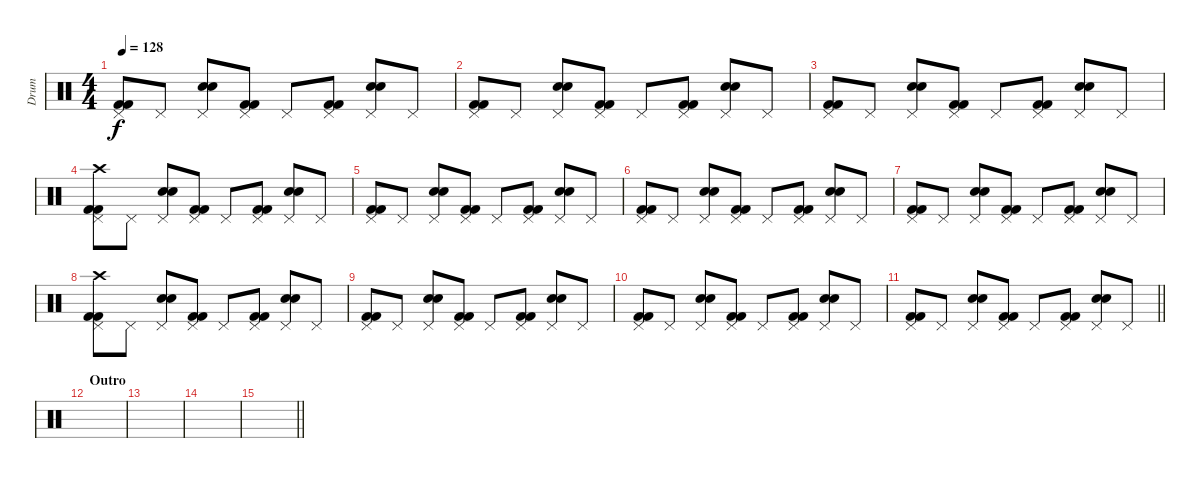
\track ("Drum" "Drum") {instrument percussion}
\staff {score}
\articulation defaults
\ts (4 4)
\tempo 128
\clef neutral
\ks c
("Kick (hit) 2" "Kick (hit) 2" "Pedal Hi-Hat (hit)").8{dy f} "Pedal Hi-Hat (hit)".8 ("Snare (hit) 2" "Snare (hit) 2" "Pedal Hi-Hat (hit)").8 ("Kick (hit) 2" "Kick (hit) 2" "Pedal Hi-Hat (hit)").8 "Pedal Hi-Hat (hit)".8 ("Kick (hit) 2" "Kick (hit) 2" "Pedal Hi-Hat (hit)").8 ("Snare (hit) 2" "Snare (hit) 2" "Pedal Hi-Hat (hit)").8 "Pedal Hi-Hat (hit)".8 |
("Kick (hit) 2" "Kick (hit) 2" "Pedal Hi-Hat (hit)").8 "Pedal Hi-Hat (hit)".8 ("Snare (hit) 2" "Snare (hit) 2" "Pedal Hi-Hat (hit)").8 ("Kick (hit) 2" "Kick (hit) 2" "Pedal Hi-Hat (hit)").8 "Pedal Hi-Hat (hit)".8 ("Kick (hit) 2" "Kick (hit) 2" "Pedal Hi-Hat (hit)").8 ("Snare (hit) 2" "Snare (hit) 2" "Pedal Hi-Hat (hit)").8 "Pedal Hi-Hat (hit)".8 |
("Kick (hit) 2" "Kick (hit) 2" "Pedal Hi-Hat (hit)").8 "Pedal Hi-Hat (hit)".8 ("Snare (hit) 2" "Snare (hit) 2" "Pedal Hi-Hat (hit)").8 ("Kick (hit) 2" "Kick (hit) 2" "Pedal Hi-Hat (hit)").8 "Pedal Hi-Hat (hit)".8 ("Kick (hit) 2" "Kick (hit) 2" "Pedal Hi-Hat (hit)").8 ("Snare (hit) 2" "Snare (hit) 2" "Pedal Hi-Hat (hit)").8 "Pedal Hi-Hat (hit)".8 |
("Kick (hit) 2" "Kick (hit) 2" "Pedal Hi-Hat (hit)" "Crash high (hit)").8 "Pedal Hi-Hat (hit)".8 ("Snare (hit) 2" "Snare (hit) 2" "Pedal Hi-Hat (hit)").8 ("Kick (hit) 2" "Kick (hit) 2" "Pedal Hi-Hat (hit)").8 "Pedal Hi-Hat (hit)".8 ("Kick (hit) 2" "Kick (hit) 2" "Pedal Hi-Hat (hit)").8 ("Snare (hit) 2" "Snare (hit) 2" "Pedal Hi-Hat (hit)").8 "Pedal Hi-Hat (hit)".8 |
("Kick (hit) 2" "Kick (hit) 2" "Pedal Hi-Hat (hit)").8 "Pedal Hi-Hat (hit)".8 ("Snare (hit) 2" "Snare (hit) 2" "Pedal Hi-Hat (hit)").8 ("Kick (hit) 2" "Kick (hit) 2" "Pedal Hi-Hat (hit)").8 "Pedal Hi-Hat (hit)".8 ("Kick (hit) 2" "Kick (hit) 2" "Pedal Hi-Hat (hit)").8 ("Snare (hit) 2" "Snare (hit) 2" "Pedal Hi-Hat (hit)").8 "Pedal Hi-Hat (hit)".8 |
("Kick (hit) 2" "Kick (hit) 2" "Pedal Hi-Hat (hit)").8 "Pedal Hi-Hat (hit)".8 ("Snare (hit) 2" "Snare (hit) 2" "Pedal Hi-Hat (hit)").8 ("Kick (hit) 2" "Kick (hit) 2" "Pedal Hi-Hat (hit)").8 "Pedal Hi-Hat (hit)".8 ("Kick (hit) 2" "Kick (hit) 2" "Pedal Hi-Hat (hit)").8 ("Snare (hit) 2" "Snare (hit) 2" "Pedal Hi-Hat (hit)").8 "Pedal Hi-Hat (hit)".8 |
("Kick (hit) 2" "Kick (hit) 2" "Pedal Hi-Hat (hit)").8 "Pedal Hi-Hat (hit)".8 ("Snare (hit) 2" "Snare (hit) 2" "Pedal Hi-Hat (hit)").8 ("Kick (hit) 2" "Kick (hit) 2" "Pedal Hi-Hat (hit)").8 "Pedal Hi-Hat (hit)".8 ("Kick (hit) 2" "Kick (hit) 2" "Pedal Hi-Hat (hit)").8 ("Snare (hit) 2" "Snare (hit) 2" "Pedal Hi-Hat (hit)").8 "Pedal Hi-Hat (hit)".8 |
("Kick (hit) 2" "Kick (hit) 2" "Pedal Hi-Hat (hit)" "Crash high (hit)").8 "Pedal Hi-Hat (hit)".8 ("Snare (hit) 2" "Snare (hit) 2" "Pedal Hi-Hat (hit)").8 ("Kick (hit) 2" "Kick (hit) 2" "Pedal Hi-Hat (hit)").8 "Pedal Hi-Hat (hit)".8 ("Kick (hit) 2" "Kick (hit) 2" "Pedal Hi-Hat (hit)").8 ("Snare (hit) 2" "Snare (hit) 2" "Pedal Hi-Hat (hit)").8 "Pedal Hi-Hat (hit)".8 |
("Kick (hit) 2" "Kick (hit) 2" "Pedal Hi-Hat (hit)").8 "Pedal Hi-Hat (hit)".8 ("Snare (hit) 2" "Snare (hit) 2" "Pedal Hi-Hat (hit)").8 ("Kick (hit) 2" "Kick (hit) 2" "Pedal Hi-Hat (hit)").8 "Pedal Hi-Hat (hit)".8 ("Kick (hit) 2" "Kick (hit) 2" "Pedal Hi-Hat (hit)").8 ("Snare (hit) 2" "Snare (hit) 2" "Pedal Hi-Hat (hit)").8 "Pedal Hi-Hat (hit)".8 |
("Kick (hit) 2" "Kick (hit) 2" "Pedal Hi-Hat (hit)").8 "Pedal Hi-Hat (hit)".8 ("Snare (hit) 2" "Snare (hit) 2" "Pedal Hi-Hat (hit)").8 ("Kick (hit) 2" "Kick (hit) 2" "Pedal Hi-Hat (hit)").8 "Pedal Hi-Hat (hit)".8 ("Kick (hit) 2" "Kick (hit) 2" "Pedal Hi-Hat (hit)").8 ("Snare (hit) 2" "Snare (hit) 2" "Pedal Hi-Hat (hit)").8 "Pedal Hi-Hat (hit)".8 |
\barLineRight lightlight
("Kick (hit) 2" "Kick (hit) 2" "Pedal Hi-Hat (hit)").8 "Pedal Hi-Hat (hit)".8 ("Snare (hit) 2" "Snare (hit) 2" "Pedal Hi-Hat (hit)").8 ("Kick (hit) 2" "Kick (hit) 2" "Pedal Hi-Hat (hit)").8 "Pedal Hi-Hat (hit)".8 ("Kick (hit) 2" "Kick (hit) 2" "Pedal Hi-Hat (hit)").8 ("Snare (hit) 2" "Snare (hit) 2" "Pedal Hi-Hat (hit)").8 "Pedal Hi-Hat (hit)".8 |
\section ("" "Outro")
|
|
|
\barLineRight lightlight
